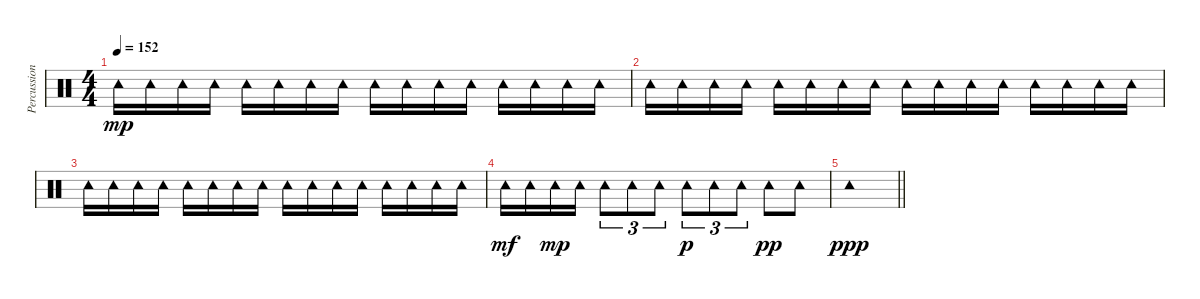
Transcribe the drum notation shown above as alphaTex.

\track ("Percussion" "Percussion") {instrument percussion}
\staff {score}
\articulation defaults
\ts (4 4)
\tempo 152
\clef neutral
\ks c "Tambourine (hit)".16{dy mp} "Tambourine (hit)".16 "Tambourine (hit)".16 "Tambourine (hit)".16 "Tambourine (hit)".16 "Tambourine (hit)".16 "Tambourine (hit)".16 "Tambourine (hit)".16 "Tambourine (hit)".16 "Tambourine (hit)".16 "Tambourine (hit)".16 "Tambourine (hit)".16 "Tambourine (hit)".16 "Tambourine (hit)".16 "Tambourine (hit)".16 "Tambourine (hit)".16
|
"Tambourine (hit)".16 "Tambourine (hit)".16 "Tambourine (hit)".16 "Tambourine (hit)".16 "Tambourine (hit)".16 "Tambourine (hit)".16 "Tambourine (hit)".16 "Tambourine (hit)".16 "Tambourine (hit)".16 "Tambourine (hit)".16 "Tambourine (hit)".16 "Tambourine (hit)".16 "Tambourine (hit)".16 "Tambourine (hit)".16 "Tambourine (hit)".16 "Tambourine (hit)".16 |
"Tambourine (hit)".16 "Tambourine (hit)".16 "Tambourine (hit)".16 "Tambourine (hit)".16 "Tambourine (hit)".16 "Tambourine (hit)".16 "Tambourine (hit)".16 "Tambourine (hit)".16 "Tambourine (hit)".16 "Tambourine (hit)".16 "Tambourine (hit)".16 "Tambourine (hit)".16 "Tambourine (hit)".16 "Tambourine (hit)".16 "Tambourine (hit)".16 "Tambourine (hit)".16 |
"Tambourine (hit)".16{dy mf} "Tambourine (hit)".16 "Tambourine (hit)".16{dy mp} "Tambourine (hit)".16 "Tambourine (hit)".8{tu (3 2)} "Tambourine (hit)".8{tu (3 2)} "Tambourine (hit)".8{tu (3 2)} "Tambourine (hit)".8{tu (3 2) dy p} "Tambourine (hit)".8{tu (3 2)} "Tambourine (hit)".8{tu (3 2)} "Tambourine (hit)".8{dy pp} "Tambourine (hit)".8 |
\barLineRight lightlight "Tambourine (hit)".1{dy ppp}
